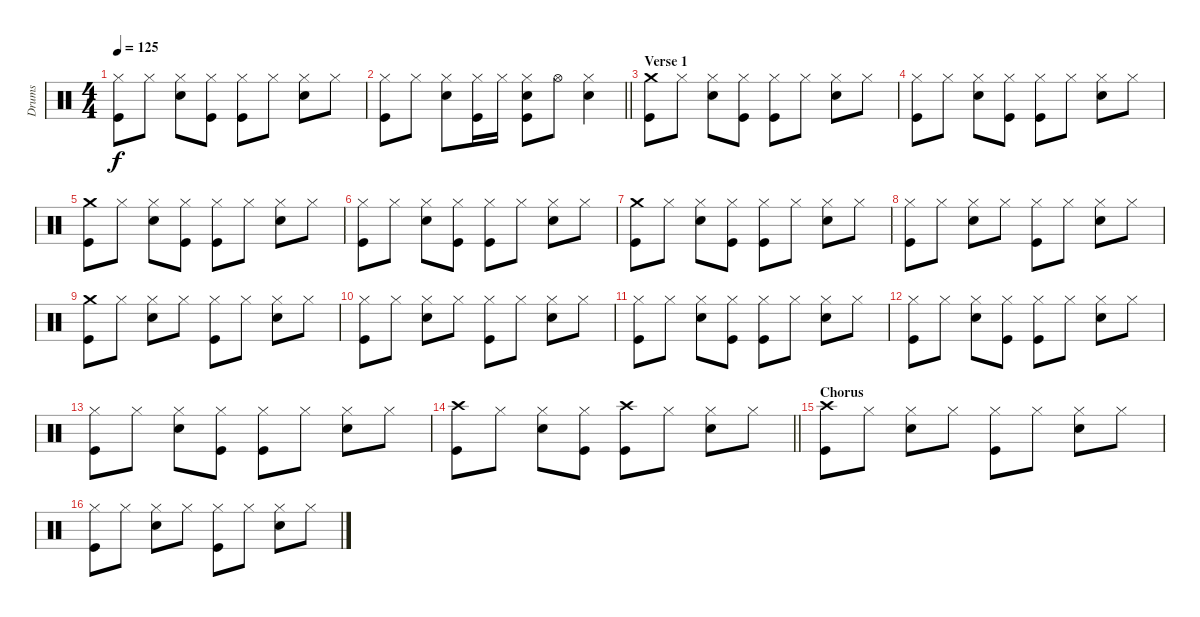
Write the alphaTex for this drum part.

\track ("Drums" "Drums") {instrument percussion}
\staff {score}
\articulation defaults
\ts (4 4)
\tempo 125
\clef neutral
\ks c
("Hi-Hat (closed)" "Kick (hit)").8{dy f} "Hi-Hat (closed)".8 ("Hi-Hat (closed)" "Electric Snare (hit)").8 ("Hi-Hat (closed)" "Kick (hit)").8 ("Hi-Hat (closed)" "Kick (hit)").8 "Hi-Hat (closed)".8 ("Hi-Hat (closed)" "Electric Snare (hit)").8 "Hi-Hat (closed)".8 |
\barLineRight lightlight
("Hi-Hat (closed)" "Kick (hit)").8 "Hi-Hat (closed)".8 ("Hi-Hat (closed)" "Electric Snare (hit)").8 ("Hi-Hat (closed)" "Kick (hit)").16 "Hi-Hat (closed)".16 ("Hi-Hat (closed)" "Electric Snare (hit)" "Kick (hit)").8 "Hi-Hat (open)".8 ("Hi-Hat (closed)" "Electric Snare (hit)").4 |
\section ("" "Verse 1")
("Crash medium (hit)" "Kick (hit)").8 "Hi-Hat (closed)".8 ("Hi-Hat (closed)" "Electric Snare (hit)").8 ("Hi-Hat (closed)" "Kick (hit)").8 ("Hi-Hat (closed)" "Kick (hit)").8 "Hi-Hat (closed)".8 ("Hi-Hat (closed)" "Electric Snare (hit)").8 "Hi-Hat (closed)".8 |
("Hi-Hat (closed)" "Kick (hit)").8 "Hi-Hat (closed)".8 ("Hi-Hat (closed)" "Electric Snare (hit)").8 ("Hi-Hat (closed)" "Kick (hit)").8 ("Hi-Hat (closed)" "Kick (hit)").8 "Hi-Hat (closed)".8 ("Hi-Hat (closed)" "Electric Snare (hit)").8 "Hi-Hat (closed)".8 |
("Crash medium (hit)" "Kick (hit)").8 "Hi-Hat (closed)".8 ("Hi-Hat (closed)" "Electric Snare (hit)").8 ("Hi-Hat (closed)" "Kick (hit)").8 ("Hi-Hat (closed)" "Kick (hit)").8 "Hi-Hat (closed)".8 ("Hi-Hat (closed)" "Electric Snare (hit)").8 "Hi-Hat (closed)".8 |
("Hi-Hat (closed)" "Kick (hit)").8 "Hi-Hat (closed)".8 ("Hi-Hat (closed)" "Electric Snare (hit)").8 ("Hi-Hat (closed)" "Kick (hit)").8 ("Hi-Hat (closed)" "Kick (hit)").8 "Hi-Hat (closed)".8 ("Hi-Hat (closed)" "Electric Snare (hit)").8 "Hi-Hat (closed)".8 |
("Crash medium (hit)" "Kick (hit)").8 "Hi-Hat (closed)".8 ("Hi-Hat (closed)" "Electric Snare (hit)").8 ("Hi-Hat (closed)" "Kick (hit)").8 ("Hi-Hat (closed)" "Kick (hit)").8 "Hi-Hat (closed)".8 ("Hi-Hat (closed)" "Electric Snare (hit)").8 "Hi-Hat (closed)".8 |
("Hi-Hat (closed)" "Kick (hit)").8 "Hi-Hat (closed)".8 ("Hi-Hat (closed)" "Electric Snare (hit)").8 "Hi-Hat (closed)".8 ("Hi-Hat (closed)" "Kick (hit)").8 "Hi-Hat (closed)".8 ("Hi-Hat (closed)" "Electric Snare (hit)").8 "Hi-Hat (closed)".8 |
("Crash medium (hit)" "Kick (hit)").8 "Hi-Hat (closed)".8 ("Hi-Hat (closed)" "Electric Snare (hit)").8 "Hi-Hat (closed)".8 ("Hi-Hat (closed)" "Kick (hit)").8 "Hi-Hat (closed)".8 ("Hi-Hat (closed)" "Electric Snare (hit)").8 "Hi-Hat (closed)".8 |
("Hi-Hat (closed)" "Kick (hit)").8 "Hi-Hat (closed)".8 ("Hi-Hat (closed)" "Electric Snare (hit)").8 "Hi-Hat (closed)".8 ("Hi-Hat (closed)" "Kick (hit)").8 "Hi-Hat (closed)".8 ("Hi-Hat (closed)" "Electric Snare (hit)").8 "Hi-Hat (closed)".8 |
("Hi-Hat (closed)" "Kick (hit)").8 "Hi-Hat (closed)".8 ("Hi-Hat (closed)" "Electric Snare (hit)").8 ("Hi-Hat (closed)" "Kick (hit)").8 ("Hi-Hat (closed)" "Kick (hit)").8 "Hi-Hat (closed)".8 ("Hi-Hat (closed)" "Electric Snare (hit)").8 "Hi-Hat (closed)".8 |
("Hi-Hat (closed)" "Kick (hit)").8 "Hi-Hat (closed)".8 ("Hi-Hat (closed)" "Electric Snare (hit)").8 ("Hi-Hat (closed)" "Kick (hit)").8 ("Hi-Hat (closed)" "Kick (hit)").8 "Hi-Hat (closed)".8 ("Hi-Hat (closed)" "Electric Snare (hit)").8 "Hi-Hat (closed)".8 |
("Hi-Hat (closed)" "Kick (hit)").8 "Hi-Hat (closed)".8 ("Hi-Hat (closed)" "Electric Snare (hit)").8 ("Hi-Hat (closed)" "Kick (hit)").8 ("Hi-Hat (closed)" "Kick (hit)").8 "Hi-Hat (closed)".8 ("Hi-Hat (closed)" "Electric Snare (hit)").8 "Hi-Hat (closed)".8 |
\barLineRight lightlight
("Crash high (hit)" "Kick (hit)").8 "Hi-Hat (closed)".8 ("Hi-Hat (closed)" "Electric Snare (hit)").8 ("Hi-Hat (closed)" "Kick (hit)").8 ("Crash high (hit)" "Kick (hit)").8 "Hi-Hat (closed)".8 ("Hi-Hat (closed)" "Electric Snare (hit)").8 "Hi-Hat (closed)".8 |
\section ("" "Chorus")
("Crash high (hit)" "Kick (hit)").8 "Hi-Hat (closed)".8 ("Hi-Hat (closed)" "Electric Snare (hit)").8 "Hi-Hat (closed)".8 ("Hi-Hat (closed)" "Kick (hit)").8 "Hi-Hat (closed)".8 ("Hi-Hat (closed)" "Electric Snare (hit)").8 "Hi-Hat (closed)".8 |
("Hi-Hat (closed)" "Kick (hit)").8 "Hi-Hat (closed)".8 ("Hi-Hat (closed)" "Electric Snare (hit)").8 "Hi-Hat (closed)".8 ("Hi-Hat (closed)" "Kick (hit)").8 "Hi-Hat (closed)".8 ("Hi-Hat (closed)" "Electric Snare (hit)").8 "Hi-Hat (closed)".8
